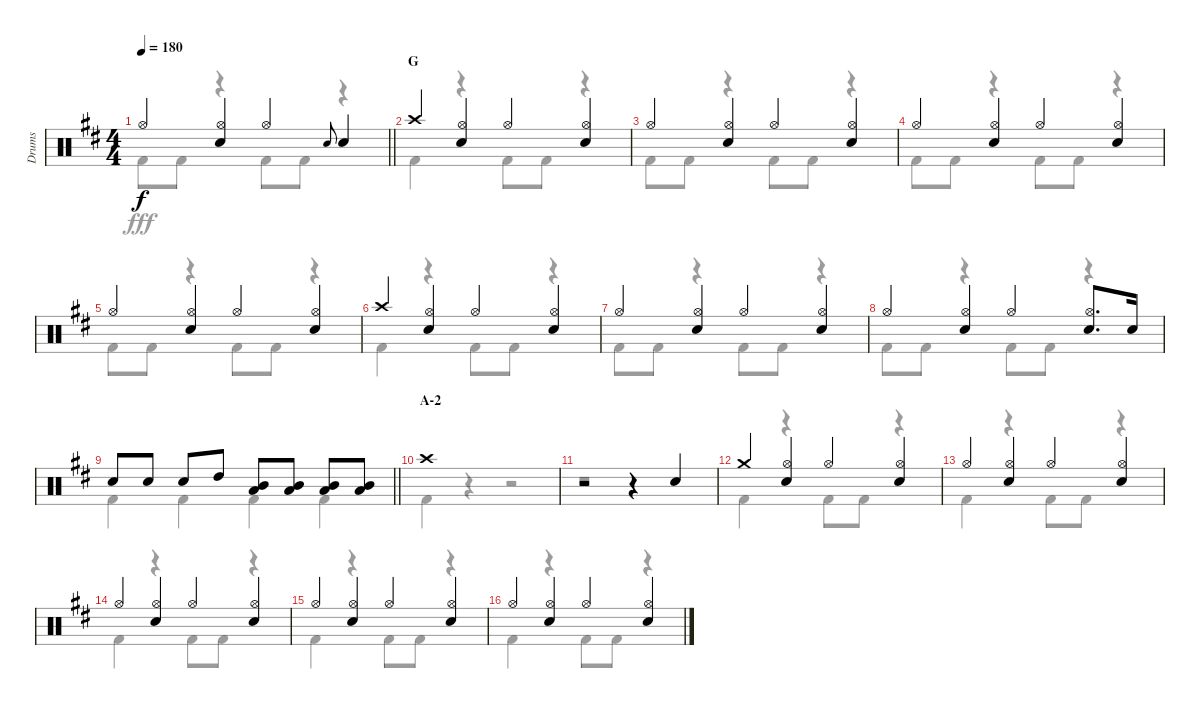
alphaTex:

\track ("Drums" "Drums") {instrument percussion}
\staff {score}
\articulation defaults
\voice
\ts (4 4)
\tempo 180
\clef neutral
\barLineRight lightlight
\ks d "Hi-Hat (open)".4{dy f}
("Hi-Hat (open)" "Snare (hit) 2").4 "Hi-Hat (open)".4 "Snare (hit) 2".8{gr onbeat} "Snare (hit) 2".4 |
\section ("" "G")
"Crash high (hit)".4 ("Hi-Hat (open)" "Snare (hit) 2").4 "Hi-Hat (open)".4 ("Hi-Hat (open)" "Snare (hit) 2").4 |
"Hi-Hat (open)".4 ("Hi-Hat (open)" "Snare (hit) 2").4 "Hi-Hat (open)".4 ("Hi-Hat (open)" "Snare (hit) 2").4 |
"Hi-Hat (open)".4 ("Hi-Hat (open)" "Snare (hit) 2").4 "Hi-Hat (open)".4 ("Hi-Hat (open)" "Snare (hit) 2").4 |
"Hi-Hat (open)".4 ("Hi-Hat (open)" "Snare (hit) 2").4 "Hi-Hat (open)".4 ("Hi-Hat (open)" "Snare (hit) 2").4 |
"Crash high (hit)".4 ("Hi-Hat (open)" "Snare (hit) 2").4 "Hi-Hat (open)".4 ("Hi-Hat (open)" "Snare (hit) 2").4 |
"Hi-Hat (open)".4 ("Hi-Hat (open)" "Snare (hit) 2").4 "Hi-Hat (open)".4 ("Hi-Hat (open)" "Snare (hit) 2").4 |
"Hi-Hat (open)".4 ("Hi-Hat (open)" "Snare (hit) 2").4 "Hi-Hat (open)".4 ("Hi-Hat (open)" "Snare (hit) 2").8{d} "Snare (hit) 2".16 |
\barLineRight lightlight "Snare (hit) 2".8 "Snare (hit) 2".8 "Snare (hit) 2".8 "High Tom (hit)".8
("Mid Tom (hit)" "Low Tom (hit)").8 ("Mid Tom (hit)" "Low Tom (hit)").8 ("Mid Tom (hit)" "Low Tom (hit)").8 ("Mid Tom (hit)" "Low Tom (hit)").8 |
\section ("" "A-2")
"Crash high (hit)".1 |
r.2 r.4 "Snare (hit) 2".4 |
"Crash medium (hit)".4 ("Hi-Hat (open)" "Snare (hit) 2").4 "Hi-Hat (open)".4 ("Hi-Hat (open)" "Snare (hit) 2").4 |
"Hi-Hat (open)".4 ("Hi-Hat (open)" "Snare (hit) 2").4 "Hi-Hat (open)".4 ("Hi-Hat (open)" "Snare (hit) 2").4 |
"Hi-Hat (open)".4 ("Hi-Hat (open)" "Snare (hit) 2").4 "Hi-Hat (open)".4 ("Hi-Hat (open)" "Snare (hit) 2").4 |
"Hi-Hat (open)".4 ("Hi-Hat (open)" "Snare (hit) 2").4 "Hi-Hat (open)".4 ("Hi-Hat (open)" "Snare (hit) 2").4 |
"Hi-Hat (open)".4 ("Hi-Hat (open)" "Snare (hit) 2").4 "Hi-Hat (open)".4 ("Hi-Hat (open)" "Snare (hit) 2").4
\voice
\clef neutral
\ottava regular
\simile none
\barLineRight lightlight
\ks d "Kick (hit) 2".8{dy fff} "Kick (hit) 2".8
r.4 "Kick (hit) 2".8 "Kick (hit) 2".8 r.4 |
"Kick (hit) 2".4 r.4 "Kick (hit) 2".8 "Kick (hit) 2".8 r.4 |
"Kick (hit) 2".8 "Kick (hit) 2".8 r.4 "Kick (hit) 2".8 "Kick (hit) 2".8 r.4 |
"Kick (hit) 2".8 "Kick (hit) 2".8 r.4 "Kick (hit) 2".8 "Kick (hit) 2".8 r.4 |
"Kick (hit) 2".8 "Kick (hit) 2".8 r.4 "Kick (hit) 2".8 "Kick (hit) 2".8 r.4 |
"Kick (hit) 2".4 r.4 "Kick (hit) 2".8 "Kick (hit) 2".8 r.4 |
"Kick (hit) 2".8 "Kick (hit) 2".8 r.4 "Kick (hit) 2".8 "Kick (hit) 2".8 r.4 |
"Kick (hit) 2".8 "Kick (hit) 2".8 r.4 "Kick (hit) 2".8 "Kick (hit) 2".8 r.4 |
\barLineRight lightlight "Kick (hit) 2".4 "Kick (hit) 2".4 "Kick (hit) 2".4 "Kick (hit) 2".4
|
"Kick (hit) 2".4 r.4 r.2 |
r.1 |
"Kick (hit) 2".4 r.4 "Kick (hit) 2".8 "Kick (hit) 2".8 r.4 |
"Kick (hit) 2".4 r.4 "Kick (hit) 2".8 "Kick (hit) 2".8 r.4 |
"Kick (hit) 2".4 r.4 "Kick (hit) 2".8 "Kick (hit) 2".8 r.4 |
"Kick (hit) 2".4 r.4 "Kick (hit) 2".8 "Kick (hit) 2".8 r.4 |
"Kick (hit) 2".4 r.4 "Kick (hit) 2".8 "Kick (hit) 2".8 r.4
